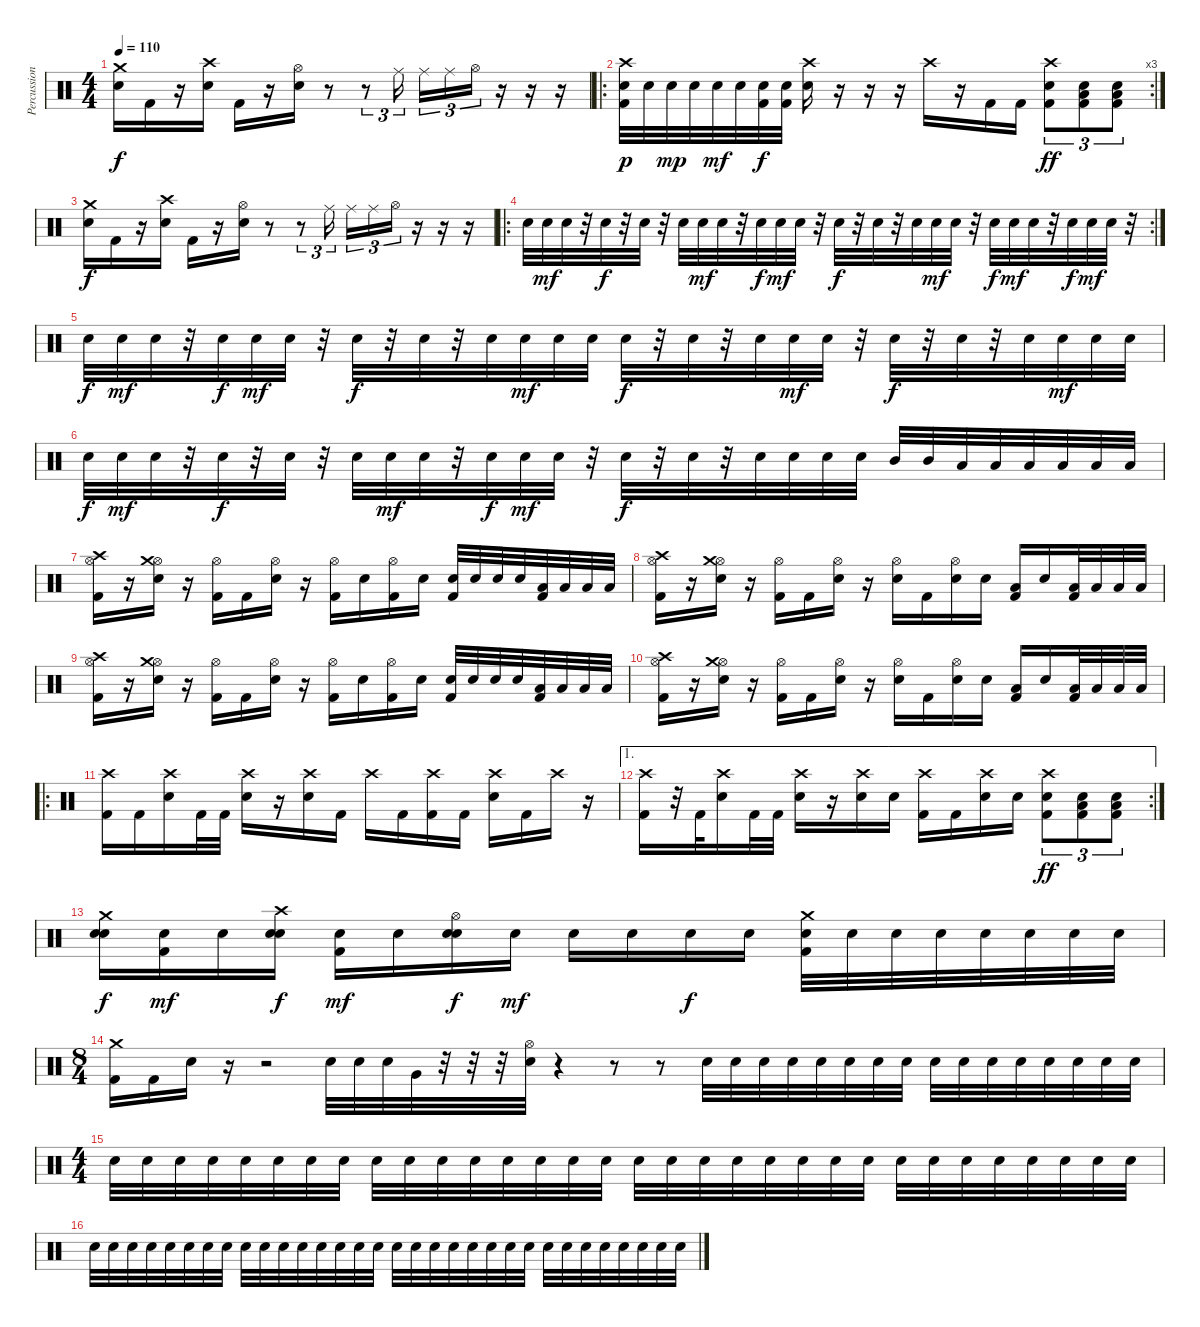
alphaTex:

\track ("Percussion" "Percussion") {instrument percussion}
\staff {score}
\articulation defaults
\ts (4 4)
\tempo 110
\clef neutral
\ks c
("Crash medium (hit)" "Electric Snare (hit)").16{dy f} "Kick (hit) 2".16 r.16 ("Crash high (hit)" "Electric Snare (hit)").16 "Kick (hit) 2".16 r.16 ("Hi-Hat (open)" "Electric Snare (hit)").16 r.8 r.8{tu (3 2)} "Ride (middle)".16{tu (3 2)} "Ride (middle)".16{tu (3 2)} "Ride (middle)".16{tu (3 2)} "Hi-Hat (open)".16{tu (3 2)} r.16 r.16 r.16 |
\ro
\rc 3
("Crash high (hit)" "Electric Snare (hit)" "Kick (hit) 2").32{dy p} "Electric Snare (hit)".32 "Electric Snare (hit)".32{dy mp} "Electric Snare (hit)".32 "Electric Snare (hit)".32{dy mf} "Electric Snare (hit)".32 ("Electric Snare (hit)" "Kick (hit) 2").32{dy f} ("Electric Snare (hit)" "Kick (hit) 2").32 ("Crash high (hit)" "Electric Snare (hit)").16 r.16 r.16 r.16 "Crash high (hit)".16 r.16 "Kick (hit) 2".16 "Kick (hit) 2".16 ("Crash high (hit)" "Electric Snare (hit)" "Kick (hit) 2").8{tu (3 2) dy ff} ("Low Tom (hit)" "Electric Snare (hit)" "Kick (hit) 2").8{tu (3 2)} ("Low Tom (hit)" "Electric Snare (hit)" "Kick (hit) 2").8{tu (3 2)} |
("Crash medium (hit)" "Electric Snare (hit)").16{dy f} "Kick (hit) 2".16 r.16 ("Crash high (hit)" "Electric Snare (hit)").16 "Kick (hit) 2".16 r.16 ("Hi-Hat (open)" "Electric Snare (hit)").16 r.8 r.8{tu (3 2)} "Ride (middle)".16{tu (3 2)} "Ride (middle)".16{tu (3 2)} "Ride (middle)".16{tu (3 2)} "Hi-Hat (open)".16{tu (3 2)} r.16 r.16 r.16 |
\ro
\rc 2 "Electric Snare (hit)".32 "Electric Snare (hit)".32{dy mf} "Electric Snare (hit)".32
r.32 "Electric Snare (hit)".32{dy f} r.32 "Electric Snare (hit)".32 r.32 "Electric Snare (hit)".32 "Electric Snare (hit)".32{dy mf} "Electric Snare (hit)".32 r.32 "Electric Snare (hit)".32{dy f} "Electric Snare (hit)".32{dy mf} "Electric Snare (hit)".32 r.32 "Electric Snare (hit)".32{dy f} r.32 "Electric Snare (hit)".32 r.32 "Electric Snare (hit)".32 "Electric Snare (hit)".32{dy mf} "Electric Snare (hit)".32 r.32 "Electric Snare (hit)".32{dy f} "Electric Snare (hit)".32{dy mf} "Electric Snare (hit)".32 r.32 "Electric Snare (hit)".32{dy f} "Electric Snare (hit)".32{dy mf} "Electric Snare (hit)".32 r.32 |
"Electric Snare (hit)".32{dy f} "Electric Snare (hit)".32{dy mf} "Electric Snare (hit)".32 r.32 "Electric Snare (hit)".32{dy f} "Electric Snare (hit)".32{dy mf} "Electric Snare (hit)".32 r.32 "Electric Snare (hit)".32{dy f} r.32 "Electric Snare (hit)".32 r.32 "Electric Snare (hit)".32 "Electric Snare (hit)".32{dy mf} "Electric Snare (hit)".32 "Electric Snare (hit)".32 "Electric Snare (hit)".32{dy f} r.32 "Electric Snare (hit)".32 r.32 "Electric Snare (hit)".32 "Electric Snare (hit)".32{dy mf} "Electric Snare (hit)".32 r.32 "Electric Snare (hit)".32{dy f} r.32 "Electric Snare (hit)".32 r.32 "Electric Snare (hit)".32 "Electric Snare (hit)".32{dy mf} "Electric Snare (hit)".32 "Electric Snare (hit)".32 |
"Electric Snare (hit)".32{dy f} "Electric Snare (hit)".32{dy mf} "Electric Snare (hit)".32 r.32 "Electric Snare (hit)".32{dy f} r.32 "Electric Snare (hit)".32 r.32 "Electric Snare (hit)".32 "Electric Snare (hit)".32{dy mf} "Electric Snare (hit)".32 r.32 "Electric Snare (hit)".32{dy f} "Electric Snare (hit)".32{dy mf} "Electric Snare (hit)".32 r.32 "Electric Snare (hit)".32{dy f} r.32 "Electric Snare (hit)".32 r.32 "Electric Snare (hit)".32 "Electric Snare (hit)".32 "Electric Snare (hit)".32 "Electric Snare (hit)".32 "Mid Tom (hit)".32 "Mid Tom (hit)".32 "Low Tom (hit)".32 "Low Tom (hit)".32 "Low Tom (hit)".32 "Low Tom (hit)".32 "Low Tom (hit)".32 "Low Tom (hit)".32 |
("Hi-Hat (open)" "Crash high (hit)" "Kick (hit) 2").16 r.16 ("Hi-Hat (open)" "Crash medium (hit)" "Electric Snare (hit)").16 r.16 ("Hi-Hat (open)" "Kick (hit) 2").16 "Kick (hit) 2".16 ("Hi-Hat (open)" "Electric Snare (hit)").16 r.16 ("Hi-Hat (open)" "Kick (hit) 2").16 "Electric Snare (hit)".16 ("Hi-Hat (open)" "Kick (hit) 2").16 "Electric Snare (hit)".16 ("Electric Snare (hit)" "Kick (hit) 2").32 "Electric Snare (hit)".32 "Electric Snare (hit)".32 "Electric Snare (hit)".32 ("Low Tom (hit)" "Kick (hit) 2").32 "Low Tom (hit)".32 "Low Tom (hit)".32 "Low Tom (hit)".32 |
("Hi-Hat (open)" "Crash high (hit)" "Kick (hit) 2").16 r.16 ("Hi-Hat (open)" "Crash medium (hit)" "Electric Snare (hit)").16 r.16 ("Hi-Hat (open)" "Kick (hit) 2").16 "Kick (hit) 2".16 ("Hi-Hat (open)" "Electric Snare (hit)").16 r.16 ("Hi-Hat (open)" "Electric Snare (hit)").16 "Kick (hit) 2".16 ("Hi-Hat (open)" "Electric Snare (hit)").16 "Electric Snare (hit)".16 ("Low Tom (hit)" "Kick (hit) 2").16 "Electric Snare (hit)".16 ("Low Tom (hit)" "Kick (hit) 2").32 "Low Tom (hit)".32 "Low Tom (hit)".32 "Low Tom (hit)".32 |
("Hi-Hat (open)" "Crash high (hit)" "Kick (hit) 2").16 r.16 ("Hi-Hat (open)" "Crash medium (hit)" "Electric Snare (hit)").16 r.16 ("Hi-Hat (open)" "Kick (hit) 2").16 "Kick (hit) 2".16 ("Hi-Hat (open)" "Electric Snare (hit)").16 r.16 ("Hi-Hat (open)" "Kick (hit) 2").16 "Electric Snare (hit)".16 ("Hi-Hat (open)" "Kick (hit) 2").16 "Electric Snare (hit)".16 ("Electric Snare (hit)" "Kick (hit) 2").32 "Electric Snare (hit)".32 "Electric Snare (hit)".32 "Electric Snare (hit)".32 ("Low Tom (hit)" "Kick (hit) 2").32 "Low Tom (hit)".32 "Low Tom (hit)".32 "Low Tom (hit)".32 |
("Hi-Hat (open)" "Crash high (hit)" "Kick (hit) 2").16 r.16 ("Hi-Hat (open)" "Crash medium (hit)" "Electric Snare (hit)").16 r.16 ("Hi-Hat (open)" "Kick (hit) 2").16 "Kick (hit) 2".16 ("Hi-Hat (open)" "Electric Snare (hit)").16 r.16 ("Hi-Hat (open)" "Electric Snare (hit)").16 "Kick (hit) 2".16 ("Hi-Hat (open)" "Electric Snare (hit)").16 "Electric Snare (hit)".16 ("Low Tom (hit)" "Kick (hit) 2").16 "Electric Snare (hit)".16 ("Low Tom (hit)" "Kick (hit) 2").32 "Low Tom (hit)".32 "Low Tom (hit)".32 "Low Tom (hit)".32 |
\ro
("Crash high (hit)" "Kick (hit) 2").16 "Kick (hit) 2".16 ("Crash high (hit)" "Electric Snare (hit)").16 "Kick (hit) 2".32 "Kick (hit) 2".32 ("Crash high (hit)" "Electric Snare (hit)").16 r.16 ("Crash high (hit)" "Electric Snare (hit)").16 "Kick (hit) 2".16 "Crash high (hit)".16 "Kick (hit) 2".16 ("Crash high (hit)" "Kick (hit) 2").16 "Kick (hit) 2".16 ("Crash high (hit)" "Electric Snare (hit)").16 "Kick (hit) 2".16 "Crash high (hit)".16 r.16 |
\ae 1
\rc 2
("Crash high (hit)" "Kick (hit) 2").16 r.32 "Kick (hit) 2".32 ("Crash high (hit)" "Electric Snare (hit)").16 "Kick (hit) 2".32 "Kick (hit) 2".32 ("Crash high (hit)" "Electric Snare (hit)").16 r.16 ("Crash high (hit)" "Electric Snare (hit)").16 "Electric Snare (hit)".16 ("Crash high (hit)" "Kick (hit) 2").16 "Kick (hit) 2".16 ("Crash high (hit)" "Electric Snare (hit)").16 "Electric Snare (hit)".16 ("Crash high (hit)" "Electric Snare (hit)" "Kick (hit) 2").8{tu (3 2) dy ff} ("Low Tom (hit)" "Electric Snare (hit)" "Kick (hit) 2").8{tu (3 2)} ("Low Tom (hit)" "Electric Snare (hit)" "Kick (hit) 2").8{tu (3 2)} |
("Crash medium (hit)" "Electric Snare (hit)" "Electric Snare (hit)").16{dy f} ("Electric Snare (hit)" "Kick (hit) 2").16{dy mf} "Electric Snare (hit)".16 ("Crash high (hit)" "Electric Snare (hit)" "Electric Snare (hit)").16{dy f} ("Electric Snare (hit)" "Kick (hit) 2").16{dy mf} "Electric Snare (hit)".16 ("Hi-Hat (open)" "Electric Snare (hit)" "Electric Snare (hit)").16{dy f} "Electric Snare (hit)".16{dy mf} "Electric Snare (hit)".16 "Electric Snare (hit)".16 "Electric Snare (hit)".16{dy f} "Electric Snare (hit)".16 ("Crash medium (hit)" "Electric Snare (hit)" "Kick (hit) 2").32 "Electric Snare (hit)".32 "Electric Snare (hit)".32 "Electric Snare (hit)".32 "Electric Snare (hit)".32 "Electric Snare (hit)".32 "Electric Snare (hit)".32 "Electric Snare (hit)".32 |
\ts (8 4)
("Crash medium (hit)" "Kick (hit) 2").16 "Kick (hit) 2".16 "Electric Snare (hit)".16 r.16 r.2 "Electric Snare (hit)".32 "Electric Snare (hit)".32 "Electric Snare (hit)".32 "Very Low Tom (hit)".32 r.32 r.32 r.32 ("Hi-Hat (open)" "Snare (hit) 2").32 r.4 r.8 r.8{volume 0} "Electric Snare (hit)".32{volume 5} "Electric Snare (hit)".32 "Electric Snare (hit)".32 "Electric Snare (hit)".32 "Electric Snare (hit)".32 "Electric Snare (hit)".32 "Electric Snare (hit)".32 "Electric Snare (hit)".32 "Electric Snare (hit)".32 "Electric Snare (hit)".32 "Electric Snare (hit)".32 "Electric Snare (hit)".32 "Electric Snare (hit)".32 "Electric Snare (hit)".32 "Electric Snare (hit)".32 "Electric Snare (hit)".32 |
\ts (4 4)
"Electric Snare (hit)".32{volume 13} "Electric Snare (hit)".32 "Electric Snare (hit)".32 "Electric Snare (hit)".32 "Electric Snare (hit)".32 "Electric Snare (hit)".32 "Electric Snare (hit)".32 "Electric Snare (hit)".32 "Electric Snare (hit)".32 "Electric Snare (hit)".32 "Electric Snare (hit)".32 "Electric Snare (hit)".32 "Electric Snare (hit)".32 "Electric Snare (hit)".32 "Electric Snare (hit)".32 "Electric Snare (hit)".32 "Electric Snare (hit)".32 "Electric Snare (hit)".32 "Electric Snare (hit)".32 "Electric Snare (hit)".32 "Electric Snare (hit)".32 "Electric Snare (hit)".32 "Electric Snare (hit)".32 "Electric Snare (hit)".32 "Electric Snare (hit)".32 "Electric Snare (hit)".32 "Electric Snare (hit)".32 "Electric Snare (hit)".32 "Electric Snare (hit)".32 "Electric Snare (hit)".32 "Electric Snare (hit)".32 "Electric Snare (hit)".32 |
"Electric Snare (hit)".32{volume 7} "Electric Snare (hit)".32{volume 10} "Electric Snare (hit)".32 "Electric Snare (hit)".32 "Electric Snare (hit)".32 "Electric Snare (hit)".32 "Electric Snare (hit)".32 "Electric Snare (hit)".32 "Electric Snare (hit)".32 "Electric Snare (hit)".32 "Electric Snare (hit)".32 "Electric Snare (hit)".32 "Electric Snare (hit)".32 "Electric Snare (hit)".32 "Electric Snare (hit)".32 "Electric Snare (hit)".32 "Electric Snare (hit)".32 "Electric Snare (hit)".32 "Electric Snare (hit)".32 "Electric Snare (hit)".32 "Electric Snare (hit)".32 "Electric Snare (hit)".32 "Electric Snare (hit)".32 "Electric Snare (hit)".32 "Electric Snare (hit)".32 "Electric Snare (hit)".32 "Electric Snare (hit)".32 "Electric Snare (hit)".32 "Electric Snare (hit)".32 "Electric Snare (hit)".32 "Electric Snare (hit)".32 "Electric Snare (hit)".32
